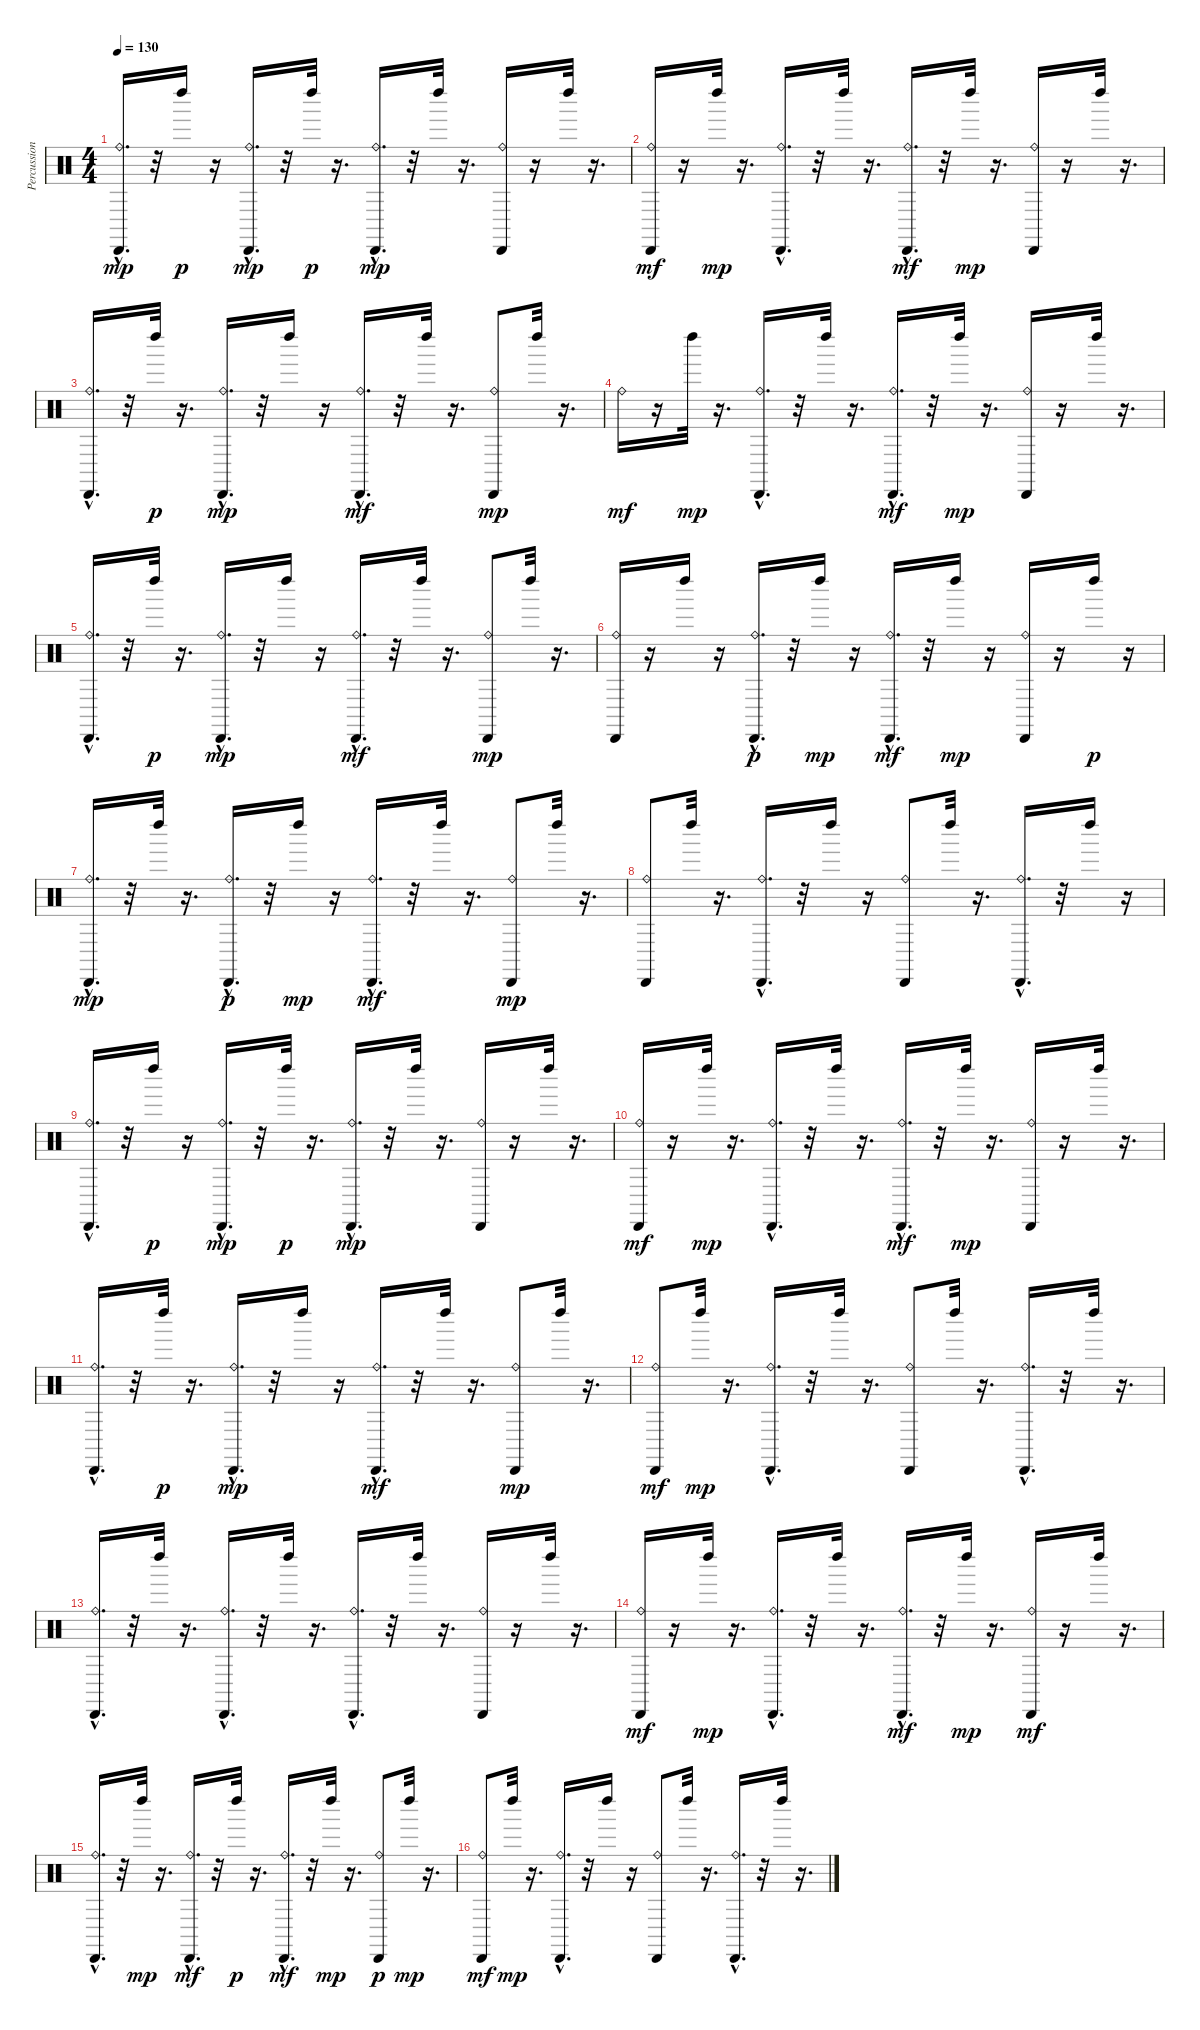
\track ("Percussion" "Percussion") {instrument percussion}
\staff {score}
\articulation defaults
\ts (4 4)
\tempo 130
\clef neutral
\ks c
("Cabasa (hit)" "Ride (bell)"{hac}).16{d dy mp} r.32 "Left Maraca (hit)".16{dy p} r.16 ("Cabasa (hit)" "Ride (bell)"{hac}).16{d dy mp} r.32 "Left Maraca (hit)".32{dy p} r.16{d} ("Cabasa (hit)" "Ride (bell)"{hac}).16{d dy mp} r.32 "Left Maraca (hit)".32 r.16{d} ("Cabasa (hit)" "Ride (bell)").16 r.16 "Left Maraca (hit)".32 r.16{d} |
("Cabasa (hit)" "Ride (bell)").16{dy mf} r.16 "Left Maraca (hit)".32{dy mp} r.16{d} ("Cabasa (hit)" "Ride (bell)"{hac}).16{d} r.32 "Left Maraca (hit)".32 r.16{d} ("Cabasa (hit)" "Ride (bell)"{hac}).16{d dy mf} r.32 "Left Maraca (hit)".32{dy mp} r.16{d} ("Ride (bell)" "Cabasa (hit)").16 r.16 "Left Maraca (hit)".32 r.16{d} |
("Cabasa (hit)" "Ride (bell)"{hac}).16{d} r.32 "Left Maraca (hit)".32{dy p} r.16{d} ("Cabasa (hit)" "Ride (bell)"{hac}).16{d dy mp} r.32 "Left Maraca (hit)".16 r.16 ("Ride (bell)"{hac} "Cabasa (hit)").16{d dy mf} r.32 "Left Maraca (hit)".32 r.16{d} ("Ride (bell)" "Cabasa (hit)").8{dy mp} "Left Maraca (hit)".32 r.16{d} |
"Ride (bell)".16{dy mf} r.16 "Left Maraca (hit)".32{dy mp} r.16{d} ("Cabasa (hit)" "Ride (bell)"{hac}).16{d} r.32 "Left Maraca (hit)".32 r.16{d} ("Cabasa (hit)" "Ride (bell)"{hac}).16{d dy mf} r.32 "Left Maraca (hit)".32{dy mp} r.16{d} ("Ride (bell)" "Cabasa (hit)").16 r.16 "Left Maraca (hit)".32 r.16{d} |
("Cabasa (hit)" "Ride (bell)"{hac}).16{d} r.32 "Left Maraca (hit)".32{dy p} r.16{d} ("Cabasa (hit)" "Ride (bell)"{hac}).16{d dy mp} r.32 "Left Maraca (hit)".16 r.16 ("Ride (bell)"{hac} "Cabasa (hit)").16{d dy mf} r.32 "Left Maraca (hit)".32 r.16{d} ("Ride (bell)" "Cabasa (hit)").8{dy mp} "Left Maraca (hit)".32 r.16{d} |
("Ride (bell)" "Cabasa (hit)").16 r.16 "Left Maraca (hit)".16 r.16 ("Ride (bell)"{hac} "Cabasa (hit)").16{d dy p} r.32 "Left Maraca (hit)".16{dy mp} r.16 ("Ride (bell)"{hac} "Cabasa (hit)").16{d dy mf} r.32 "Left Maraca (hit)".16{dy mp} r.16 ("Ride (bell)" "Cabasa (hit)").16 r.16 "Left Maraca (hit)".16{dy p} r.16 |
("Ride (bell)"{hac} "Cabasa (hit)").16{d dy mp} r.32 "Left Maraca (hit)".32 r.16{d} ("Ride (bell)"{hac} "Cabasa (hit)").16{d dy p} r.32 "Left Maraca (hit)".16{dy mp} r.16 ("Ride (bell)"{hac} "Cabasa (hit)").16{d dy mf} r.32 "Left Maraca (hit)".32 r.16{d} ("Ride (bell)" "Cabasa (hit)").8{dy mp} "Left Maraca (hit)".32 r.16{d} |
("Cabasa (hit)" "Ride (bell)").8 "Left Maraca (hit)".32 r.16{d} ("Cabasa (hit)" "Ride (bell)"{hac}).16{d} r.32 "Left Maraca (hit)".16 r.16 ("Cabasa (hit)" "Ride (bell)").8 "Left Maraca (hit)".32 r.16{d} ("Cabasa (hit)" "Ride (bell)"{hac}).16{d} r.32 "Left Maraca (hit)".16 r.16 |
("Cabasa (hit)" "Ride (bell)"{hac}).16{d} r.32 "Left Maraca (hit)".16{dy p} r.16 ("Cabasa (hit)" "Ride (bell)"{hac}).16{d dy mp} r.32 "Left Maraca (hit)".32{dy p} r.16{d} ("Cabasa (hit)" "Ride (bell)"{hac}).16{d dy mp} r.32 "Left Maraca (hit)".32 r.16{d} ("Cabasa (hit)" "Ride (bell)").16 r.16 "Left Maraca (hit)".32 r.16{d} |
("Cabasa (hit)" "Ride (bell)").16{dy mf} r.16 "Left Maraca (hit)".32{dy mp} r.16{d} ("Cabasa (hit)" "Ride (bell)"{hac}).16{d} r.32 "Left Maraca (hit)".32 r.16{d} ("Cabasa (hit)" "Ride (bell)"{hac}).16{d dy mf} r.32 "Left Maraca (hit)".32{dy mp} r.16{d} ("Ride (bell)" "Cabasa (hit)").16 r.16 "Left Maraca (hit)".32 r.16{d} |
("Cabasa (hit)" "Ride (bell)"{hac}).16{d} r.32 "Left Maraca (hit)".32{dy p} r.16{d} ("Cabasa (hit)" "Ride (bell)"{hac}).16{d dy mp} r.32 "Left Maraca (hit)".16 r.16 ("Ride (bell)"{hac} "Cabasa (hit)").16{d dy mf} r.32 "Left Maraca (hit)".32 r.16{d} ("Ride (bell)" "Cabasa (hit)").8{dy mp} "Left Maraca (hit)".32 r.16{d} |
("Ride (bell)" "Cabasa (hit)").8{dy mf} "Left Maraca (hit)".32{dy mp} r.16{d} ("Ride (bell)"{hac} "Cabasa (hit)").16{d} r.32 "Left Maraca (hit)".32 r.16{d} ("Ride (bell)" "Cabasa (hit)").8 "Left Maraca (hit)".32 r.16{d} ("Cabasa (hit)" "Ride (bell)"{hac}).16{d} r.32 "Left Maraca (hit)".32 r.16{d} |
("Cabasa (hit)" "Ride (bell)"{hac}).16{d} r.32 "Left Maraca (hit)".32 r.16{d} ("Ride (bell)"{hac} "Cabasa (hit)").16{d} r.32 "Left Maraca (hit)".32 r.16{d} ("Ride (bell)"{hac} "Cabasa (hit)").16{d} r.32 "Left Maraca (hit)".32 r.16{d} ("Ride (bell)" "Cabasa (hit)").16 r.16 "Left Maraca (hit)".32 r.16{d} |
("Ride (bell)" "Cabasa (hit)").16{dy mf} r.16 "Left Maraca (hit)".32{dy mp} r.16{d} ("Cabasa (hit)" "Ride (bell)"{hac}).16{d} r.32 "Left Maraca (hit)".32 r.16{d} ("Ride (bell)"{hac} "Cabasa (hit)").16{d dy mf} r.32 "Left Maraca (hit)".32{dy mp} r.16{d} ("Ride (bell)" "Cabasa (hit)").16{dy mf} r.16 "Left Maraca (hit)".32 r.16{d} |
("Ride (bell)"{hac} "Cabasa (hit)").16{d} r.32 "Left Maraca (hit)".32{dy mp} r.16{d} ("Ride (bell)"{hac} "Cabasa (hit)").16{d dy mf} r.32 "Left Maraca (hit)".32{dy p} r.16{d} ("Ride (bell)"{hac} "Cabasa (hit)").16{d dy mf} r.32 "Left Maraca (hit)".32{dy mp} r.16{d} ("Ride (bell)" "Cabasa (hit)").8{dy p} "Left Maraca (hit)".32{dy mp} r.16{d} |
("Ride (bell)" "Cabasa (hit)").8{dy mf} "Left Maraca (hit)".32{dy mp} r.16{d} ("Ride (bell)"{hac} "Cabasa (hit)").16{d} r.32 "Left Maraca (hit)".16 r.16 ("Ride (bell)" "Cabasa (hit)").8 "Left Maraca (hit)".32 r.16{d} ("Cabasa (hit)" "Ride (bell)"{hac}).16{d} r.32 "Left Maraca (hit)".32 r.16{d}
